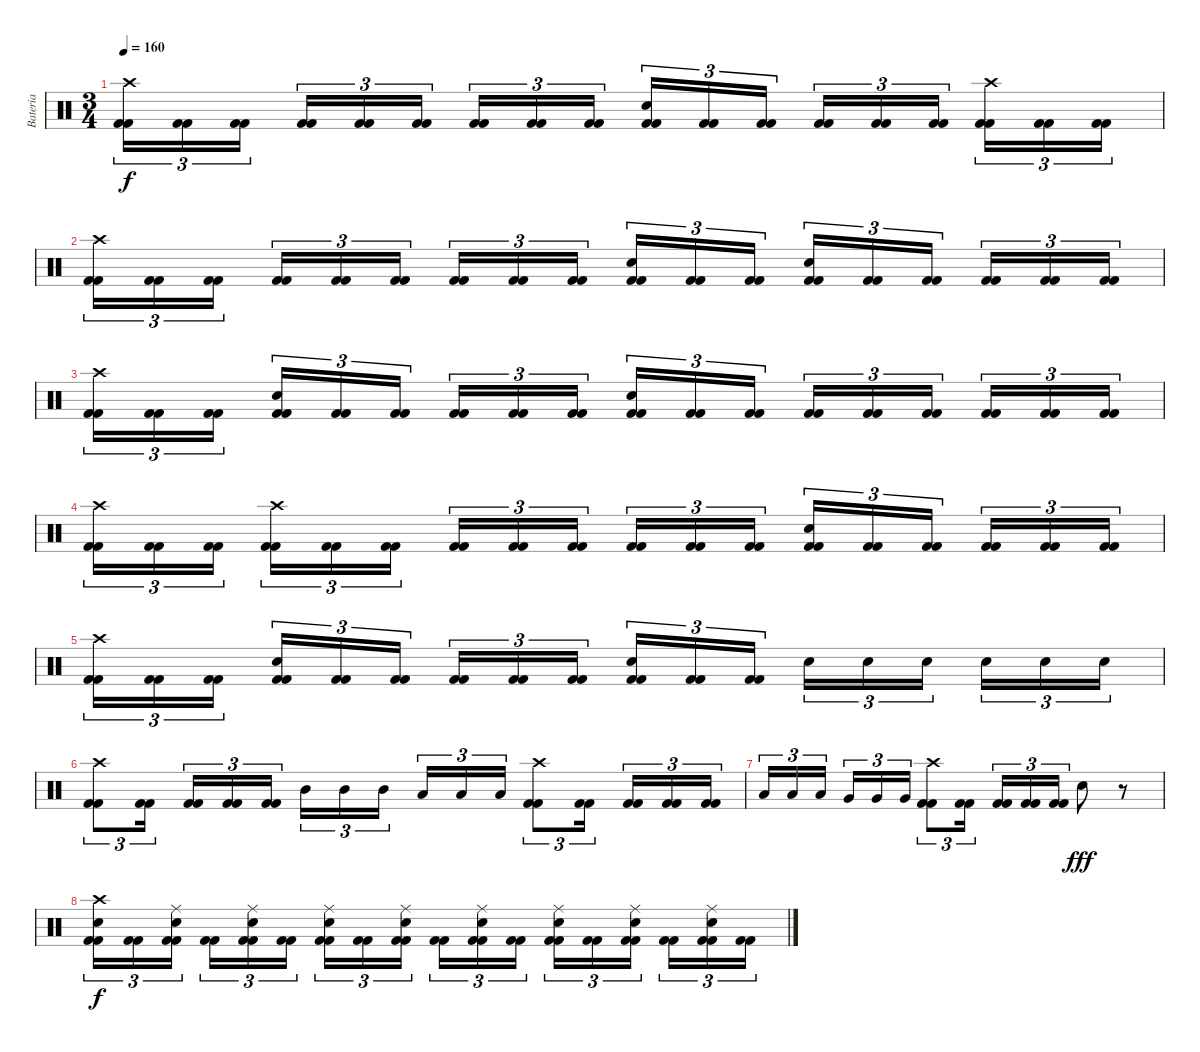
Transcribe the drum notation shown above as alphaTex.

\track ("Bateria" "Bateria") {instrument percussion}
\staff {score}
\articulation defaults
\ts (3 4)
\tempo 160
\clef neutral
\ks c
("Kick (hit) 2" "Kick (hit) 2" "Crash high (hit)").16{tu (3 2) dy f} ("Kick (hit) 2" "Kick (hit) 2").16{tu (3 2)} ("Kick (hit) 2" "Kick (hit) 2").16{tu (3 2)} ("Kick (hit) 2" "Kick (hit) 2").16{tu (3 2)} ("Kick (hit) 2" "Kick (hit) 2").16{tu (3 2)} ("Kick (hit) 2" "Kick (hit) 2").16{tu (3 2)} ("Kick (hit) 2" "Kick (hit) 2").16{tu (3 2)} ("Kick (hit) 2" "Kick (hit) 2").16{tu (3 2)} ("Kick (hit) 2" "Kick (hit) 2").16{tu (3 2)} ("Kick (hit) 2" "Kick (hit) 2" "Snare (hit) 2").16{tu (3 2)} ("Kick (hit) 2" "Kick (hit) 2").16{tu (3 2)} ("Kick (hit) 2" "Kick (hit) 2").16{tu (3 2)} ("Kick (hit) 2" "Kick (hit) 2").16{tu (3 2)} ("Kick (hit) 2" "Kick (hit) 2").16{tu (3 2)} ("Kick (hit) 2" "Kick (hit) 2").16{tu (3 2)} ("Kick (hit) 2" "Kick (hit) 2" "Crash high (hit)").16{tu (3 2)} ("Kick (hit) 2" "Kick (hit) 2").16{tu (3 2)} ("Kick (hit) 2" "Kick (hit) 2").16{tu (3 2)} |
("Kick (hit) 2" "Kick (hit) 2" "Crash high (hit)").16{tu (3 2)} ("Kick (hit) 2" "Kick (hit) 2").16{tu (3 2)} ("Kick (hit) 2" "Kick (hit) 2").16{tu (3 2)} ("Kick (hit) 2" "Kick (hit) 2").16{tu (3 2)} ("Kick (hit) 2" "Kick (hit) 2").16{tu (3 2)} ("Kick (hit) 2" "Kick (hit) 2").16{tu (3 2)} ("Kick (hit) 2" "Kick (hit) 2").16{tu (3 2)} ("Kick (hit) 2" "Kick (hit) 2").16{tu (3 2)} ("Kick (hit) 2" "Kick (hit) 2").16{tu (3 2)} ("Kick (hit) 2" "Kick (hit) 2" "Snare (hit) 2").16{tu (3 2)} ("Kick (hit) 2" "Kick (hit) 2").16{tu (3 2)} ("Kick (hit) 2" "Kick (hit) 2").16{tu (3 2)} ("Kick (hit) 2" "Kick (hit) 2" "Snare (hit) 2").16{tu (3 2)} ("Kick (hit) 2" "Kick (hit) 2").16{tu (3 2)} ("Kick (hit) 2" "Kick (hit) 2").16{tu (3 2)} ("Kick (hit) 2" "Kick (hit) 2").16{tu (3 2)} ("Kick (hit) 2" "Kick (hit) 2").16{tu (3 2)} ("Kick (hit) 2" "Kick (hit) 2").16{tu (3 2)} |
("Kick (hit) 2" "Kick (hit) 2" "Crash high (hit)").16{tu (3 2)} ("Kick (hit) 2" "Kick (hit) 2").16{tu (3 2)} ("Kick (hit) 2" "Kick (hit) 2").16{tu (3 2)} ("Kick (hit) 2" "Kick (hit) 2" "Snare (hit) 2").16{tu (3 2)} ("Kick (hit) 2" "Kick (hit) 2").16{tu (3 2)} ("Kick (hit) 2" "Kick (hit) 2").16{tu (3 2)} ("Kick (hit) 2" "Kick (hit) 2").16{tu (3 2)} ("Kick (hit) 2" "Kick (hit) 2").16{tu (3 2)} ("Kick (hit) 2" "Kick (hit) 2").16{tu (3 2)} ("Kick (hit) 2" "Kick (hit) 2" "Snare (hit) 2").16{tu (3 2)} ("Kick (hit) 2" "Kick (hit) 2").16{tu (3 2)} ("Kick (hit) 2" "Kick (hit) 2").16{tu (3 2)} ("Kick (hit) 2" "Kick (hit) 2").16{tu (3 2)} ("Kick (hit) 2" "Kick (hit) 2").16{tu (3 2)} ("Kick (hit) 2" "Kick (hit) 2").16{tu (3 2)} ("Kick (hit) 2" "Kick (hit) 2").16{tu (3 2)} ("Kick (hit) 2" "Kick (hit) 2").16{tu (3 2)} ("Kick (hit) 2" "Kick (hit) 2").16{tu (3 2)} |
("Kick (hit) 2" "Kick (hit) 2" "Crash high (hit)").16{tu (3 2)} ("Kick (hit) 2" "Kick (hit) 2").16{tu (3 2)} ("Kick (hit) 2" "Kick (hit) 2").16{tu (3 2)} ("Kick (hit) 2" "Kick (hit) 2" "Crash high (hit)").16{tu (3 2)} ("Kick (hit) 2" "Kick (hit) 2").16{tu (3 2)} ("Kick (hit) 2" "Kick (hit) 2").16{tu (3 2)} ("Kick (hit) 2" "Kick (hit) 2").16{tu (3 2)} ("Kick (hit) 2" "Kick (hit) 2").16{tu (3 2)} ("Kick (hit) 2" "Kick (hit) 2").16{tu (3 2)} ("Kick (hit) 2" "Kick (hit) 2").16{tu (3 2)} ("Kick (hit) 2" "Kick (hit) 2").16{tu (3 2)} ("Kick (hit) 2" "Kick (hit) 2").16{tu (3 2)} ("Kick (hit) 2" "Kick (hit) 2" "Snare (hit) 2").16{tu (3 2)} ("Kick (hit) 2" "Kick (hit) 2").16{tu (3 2)} ("Kick (hit) 2" "Kick (hit) 2").16{tu (3 2)} ("Kick (hit) 2" "Kick (hit) 2").16{tu (3 2)} ("Kick (hit) 2" "Kick (hit) 2").16{tu (3 2)} ("Kick (hit) 2" "Kick (hit) 2").16{tu (3 2)} |
("Kick (hit) 2" "Kick (hit) 2" "Crash high (hit)").16{tu (3 2)} ("Kick (hit) 2" "Kick (hit) 2").16{tu (3 2)} ("Kick (hit) 2" "Kick (hit) 2").16{tu (3 2)} ("Kick (hit) 2" "Kick (hit) 2" "Snare (hit) 2").16{tu (3 2)} ("Kick (hit) 2" "Kick (hit) 2").16{tu (3 2)} ("Kick (hit) 2" "Kick (hit) 2").16{tu (3 2)} ("Kick (hit) 2" "Kick (hit) 2").16{tu (3 2)} ("Kick (hit) 2" "Kick (hit) 2").16{tu (3 2)} ("Kick (hit) 2" "Kick (hit) 2").16{tu (3 2)} ("Kick (hit) 2" "Kick (hit) 2" "Snare (hit) 2").16{tu (3 2)} ("Kick (hit) 2" "Kick (hit) 2").16{tu (3 2)} ("Kick (hit) 2" "Kick (hit) 2").16{tu (3 2)} "Snare (hit) 2".16{tu (3 2)} "Snare (hit) 2".16{tu (3 2)} "Snare (hit) 2".16{tu (3 2)} "Snare (hit) 2".16{tu (3 2)} "Snare (hit) 2".16{tu (3 2)} "Snare (hit) 2".16{tu (3 2)} |
("Kick (hit) 2" "Kick (hit) 2" "Crash high (hit)").8{tu (3 2)} ("Kick (hit) 2" "Kick (hit) 2").16{tu (3 2)} ("Kick (hit) 2" "Kick (hit) 2").16{tu (3 2)} ("Kick (hit) 2" "Kick (hit) 2").16{tu (3 2)} ("Kick (hit) 2" "Kick (hit) 2").16{tu (3 2)} "Mid Tom (hit)".16{tu (3 2)} "Mid Tom (hit)".16{tu (3 2)} "Mid Tom (hit)".16{tu (3 2)} "Low Tom (hit)".16{tu (3 2)} "Low Tom (hit)".16{tu (3 2)} "Low Tom (hit)".16{tu (3 2)} ("Kick (hit) 2" "Kick (hit) 2" "Crash high (hit)").8{tu (3 2)} ("Kick (hit) 2" "Kick (hit) 2").16{tu (3 2)} ("Kick (hit) 2" "Kick (hit) 2").16{tu (3 2)} ("Kick (hit) 2" "Kick (hit) 2").16{tu (3 2)} ("Kick (hit) 2" "Kick (hit) 2").16{tu (3 2)} |
"Low Tom (hit)".16{tu (3 2)} "Low Tom (hit)".16{tu (3 2)} "Low Tom (hit)".16{tu (3 2)} "Very Low Tom (hit)".16{tu (3 2)} "Very Low Tom (hit)".16{tu (3 2)} "Very Low Tom (hit)".16{tu (3 2)} ("Kick (hit) 2" "Kick (hit) 2" "Crash high (hit)").8{tu (3 2)} ("Kick (hit) 2" "Kick (hit) 2").16{tu (3 2)} ("Kick (hit) 2" "Kick (hit) 2").16{tu (3 2)} ("Kick (hit) 2" "Kick (hit) 2").16{tu (3 2)} ("Kick (hit) 2" "Kick (hit) 2").16{tu (3 2)} "Snare (hit) 2".8{dy fff} r.8 |
("Kick (hit) 2" "Kick (hit) 2" "Snare (hit) 2" "Crash high (hit)").16{tu (3 2) dy f} ("Kick (hit) 2" "Kick (hit) 2").16{tu (3 2)} ("Kick (hit) 2" "Kick (hit) 2" "Snare (hit) 2" "Ride (middle)").16{tu (3 2)} ("Kick (hit) 2" "Kick (hit) 2").16{tu (3 2)} ("Kick (hit) 2" "Kick (hit) 2" "Snare (hit) 2" "Ride (middle)").16{tu (3 2)} ("Kick (hit) 2" "Kick (hit) 2").16{tu (3 2)} ("Kick (hit) 2" "Kick (hit) 2" "Snare (hit) 2" "Ride (middle)").16{tu (3 2)} ("Kick (hit) 2" "Kick (hit) 2").16{tu (3 2)} ("Kick (hit) 2" "Kick (hit) 2" "Snare (hit) 2" "Ride (middle)").16{tu (3 2)} ("Kick (hit) 2" "Kick (hit) 2").16{tu (3 2)} ("Kick (hit) 2" "Kick (hit) 2" "Snare (hit) 2" "Ride (middle)").16{tu (3 2)} ("Kick (hit) 2" "Kick (hit) 2").16{tu (3 2)} ("Kick (hit) 2" "Kick (hit) 2" "Snare (hit) 2" "Ride (middle)").16{tu (3 2)} ("Kick (hit) 2" "Kick (hit) 2").16{tu (3 2)} ("Kick (hit) 2" "Kick (hit) 2" "Snare (hit) 2" "Ride (middle)").16{tu (3 2)} ("Kick (hit) 2" "Kick (hit) 2").16{tu (3 2)} ("Kick (hit) 2" "Kick (hit) 2" "Snare (hit) 2" "Ride (middle)").16{tu (3 2)} ("Kick (hit) 2" "Kick (hit) 2").16{tu (3 2)}
